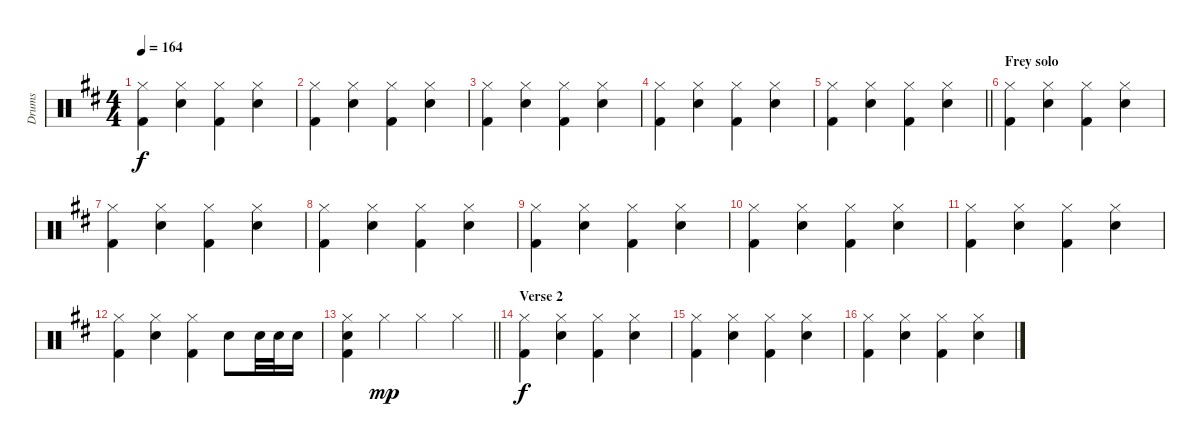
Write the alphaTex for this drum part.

\track ("Drums" "Drums") {instrument percussion}
\staff {score}
\articulation defaults
\ts (4 4)
\tempo 164
\clef neutral
\ks d
("Hi-Hat (closed)" "Kick (hit) 2").4{dy f} ("Hi-Hat (closed)" "Snare (hit) 2").4 ("Hi-Hat (closed)" "Kick (hit) 2").4 ("Hi-Hat (closed)" "Snare (hit) 2").4 |
("Hi-Hat (closed)" "Kick (hit) 2").4 ("Hi-Hat (closed)" "Snare (hit) 2").4 ("Hi-Hat (closed)" "Kick (hit) 2").4 ("Hi-Hat (closed)" "Snare (hit) 2").4 |
("Hi-Hat (closed)" "Kick (hit) 2").4 ("Hi-Hat (closed)" "Snare (hit) 2").4 ("Hi-Hat (closed)" "Kick (hit) 2").4 ("Hi-Hat (closed)" "Snare (hit) 2").4 |
("Hi-Hat (closed)" "Kick (hit) 2").4 ("Hi-Hat (closed)" "Snare (hit) 2").4 ("Hi-Hat (closed)" "Kick (hit) 2").4 ("Hi-Hat (closed)" "Snare (hit) 2").4 |
\barLineRight lightlight
("Hi-Hat (closed)" "Kick (hit) 2").4 ("Hi-Hat (closed)" "Snare (hit) 2").4 ("Hi-Hat (closed)" "Kick (hit) 2").4 ("Hi-Hat (closed)" "Snare (hit) 2").4 |
\section ("" "Frey solo")
("Hi-Hat (closed)" "Kick (hit) 2").4 ("Hi-Hat (closed)" "Snare (hit) 2").4 ("Hi-Hat (closed)" "Kick (hit) 2").4 ("Hi-Hat (closed)" "Snare (hit) 2").4 |
("Hi-Hat (closed)" "Kick (hit) 2").4 ("Hi-Hat (closed)" "Snare (hit) 2").4 ("Hi-Hat (closed)" "Kick (hit) 2").4 ("Hi-Hat (closed)" "Snare (hit) 2").4 |
("Hi-Hat (closed)" "Kick (hit) 2").4 ("Hi-Hat (closed)" "Snare (hit) 2").4 ("Hi-Hat (closed)" "Kick (hit) 2").4 ("Hi-Hat (closed)" "Snare (hit) 2").4 |
("Hi-Hat (closed)" "Kick (hit) 2").4 ("Hi-Hat (closed)" "Snare (hit) 2").4 ("Hi-Hat (closed)" "Kick (hit) 2").4 ("Hi-Hat (closed)" "Snare (hit) 2").4 |
("Hi-Hat (closed)" "Kick (hit) 2").4 ("Hi-Hat (closed)" "Snare (hit) 2").4 ("Hi-Hat (closed)" "Kick (hit) 2").4 ("Hi-Hat (closed)" "Snare (hit) 2").4 |
("Hi-Hat (closed)" "Kick (hit) 2").4 ("Hi-Hat (closed)" "Snare (hit) 2").4 ("Hi-Hat (closed)" "Kick (hit) 2").4 ("Hi-Hat (closed)" "Snare (hit) 2").4 |
("Hi-Hat (closed)" "Kick (hit) 2").4 ("Hi-Hat (closed)" "Snare (hit) 2").4 ("Hi-Hat (closed)" "Kick (hit) 2").4 "Snare (hit) 2".8 "Snare (hit) 2".32 "Snare (hit) 2".32 "Snare (hit) 2".16 |
\barLineRight lightlight
("Hi-Hat (closed)" "Snare (hit) 2" "Kick (hit) 2").4 "Hi-Hat (closed)".4{dy mp} "Hi-Hat (closed)".4 "Hi-Hat (closed)".4 |
\section ("" "Verse 2")
("Hi-Hat (closed)" "Kick (hit) 2").4{dy f} ("Hi-Hat (closed)" "Snare (hit) 2").4 ("Hi-Hat (closed)" "Kick (hit) 2").4 ("Hi-Hat (closed)" "Snare (hit) 2").4 |
("Hi-Hat (closed)" "Kick (hit) 2").4 ("Hi-Hat (closed)" "Snare (hit) 2").4 ("Hi-Hat (closed)" "Kick (hit) 2").4 ("Hi-Hat (closed)" "Snare (hit) 2").4 |
("Hi-Hat (closed)" "Kick (hit) 2").4 ("Hi-Hat (closed)" "Snare (hit) 2").4 ("Hi-Hat (closed)" "Kick (hit) 2").4 ("Hi-Hat (closed)" "Snare (hit) 2").4
